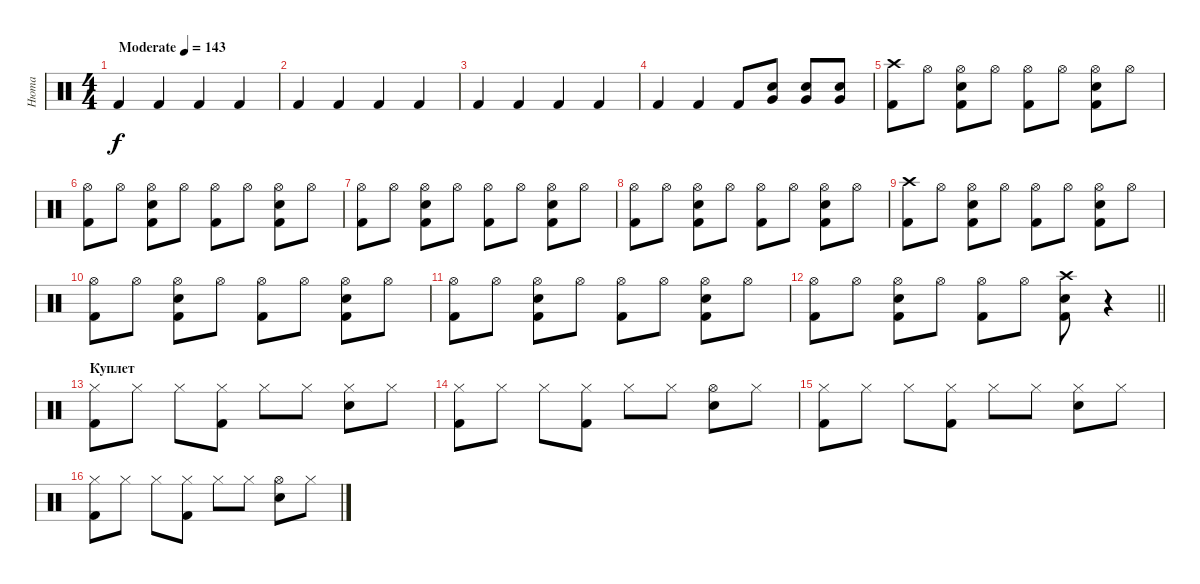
\track ("Нюта" "Нюта") {instrument percussion}
\staff {score}
\articulation defaults
\ts (4 4)
\tempo (143 "Moderate")
\clef neutral
\ks c "Kick (hit) 2".4{dy f} "Kick (hit) 2".4 "Kick (hit) 2".4 "Kick (hit) 2".4
|
"Kick (hit) 2".4 "Kick (hit) 2".4 "Kick (hit) 2".4 "Kick (hit) 2".4 |
"Kick (hit) 2".4 "Kick (hit) 2".4 "Kick (hit) 2".4 "Kick (hit) 2".4 |
"Kick (hit) 2".4 "Kick (hit) 2".4 "Kick (hit) 2".8 ("Very Low Tom (hit)" "Snare (hit) 2").8 ("Very Low Tom (hit)" "Snare (hit) 2").8 ("Very Low Tom (hit)" "Snare (hit) 2").8 |
("Crash high (hit)" "Kick (hit) 2").8 "Hi-Hat (open)".8 ("Hi-Hat (open)" "Snare (hit) 2" "Kick (hit) 2").8 "Hi-Hat (open)".8 ("Hi-Hat (open)" "Kick (hit) 2").8 "Hi-Hat (open)".8 ("Hi-Hat (open)" "Snare (hit) 2" "Kick (hit) 2").8 "Hi-Hat (open)".8 |
("Hi-Hat (open)" "Kick (hit) 2").8 "Hi-Hat (open)".8 ("Hi-Hat (open)" "Snare (hit) 2" "Kick (hit) 2").8 "Hi-Hat (open)".8 ("Hi-Hat (open)" "Kick (hit) 2").8 "Hi-Hat (open)".8 ("Hi-Hat (open)" "Snare (hit) 2" "Kick (hit) 2").8 "Hi-Hat (open)".8 |
("Hi-Hat (open)" "Kick (hit) 2").8 "Hi-Hat (open)".8 ("Hi-Hat (open)" "Snare (hit) 2" "Kick (hit) 2").8 "Hi-Hat (open)".8 ("Hi-Hat (open)" "Kick (hit) 2").8 "Hi-Hat (open)".8 ("Hi-Hat (open)" "Snare (hit) 2" "Kick (hit) 2").8 "Hi-Hat (open)".8 |
("Hi-Hat (open)" "Kick (hit) 2").8 "Hi-Hat (open)".8 ("Hi-Hat (open)" "Snare (hit) 2" "Kick (hit) 2").8 "Hi-Hat (open)".8 ("Hi-Hat (open)" "Kick (hit) 2").8 "Hi-Hat (open)".8 ("Hi-Hat (open)" "Snare (hit) 2" "Kick (hit) 2").8 "Hi-Hat (open)".8 |
("Crash high (hit)" "Kick (hit) 2").8 "Hi-Hat (open)".8 ("Hi-Hat (open)" "Snare (hit) 2" "Kick (hit) 2").8 "Hi-Hat (open)".8 ("Hi-Hat (open)" "Kick (hit) 2").8 "Hi-Hat (open)".8 ("Hi-Hat (open)" "Snare (hit) 2" "Kick (hit) 2").8 "Hi-Hat (open)".8 |
("Hi-Hat (open)" "Kick (hit) 2").8 "Hi-Hat (open)".8 ("Hi-Hat (open)" "Snare (hit) 2" "Kick (hit) 2").8 "Hi-Hat (open)".8 ("Hi-Hat (open)" "Kick (hit) 2").8 "Hi-Hat (open)".8 ("Hi-Hat (open)" "Snare (hit) 2" "Kick (hit) 2").8 "Hi-Hat (open)".8 |
("Hi-Hat (open)" "Kick (hit) 2").8 "Hi-Hat (open)".8 ("Hi-Hat (open)" "Snare (hit) 2" "Kick (hit) 2").8 "Hi-Hat (open)".8 ("Hi-Hat (open)" "Kick (hit) 2").8 "Hi-Hat (open)".8 ("Hi-Hat (open)" "Snare (hit) 2" "Kick (hit) 2").8 "Hi-Hat (open)".8 |
\barLineRight lightlight
("Hi-Hat (open)" "Kick (hit) 2").8 "Hi-Hat (open)".8 ("Hi-Hat (open)" "Snare (hit) 2" "Kick (hit) 2").8 "Hi-Hat (open)".8 ("Hi-Hat (open)" "Kick (hit) 2").8 "Hi-Hat (open)".8 ("Crash high (hit)" "Snare (hit) 2" "Kick (hit) 2").8 r.4 |
\section ("" "Куплет")
("Hi-Hat (closed)" "Kick (hit) 2").8 "Hi-Hat (closed)".8 "Hi-Hat (closed)".8 ("Hi-Hat (closed)" "Kick (hit) 2").8 "Hi-Hat (closed)".8 "Hi-Hat (closed)".8 ("Hi-Hat (closed)" "Snare (hit) 2").8 "Hi-Hat (closed)".8 |
("Hi-Hat (closed)" "Kick (hit) 2").8 "Hi-Hat (closed)".8 "Hi-Hat (closed)".8 ("Hi-Hat (closed)" "Kick (hit) 2").8 "Hi-Hat (closed)".8 "Hi-Hat (closed)".8 ("Hi-Hat (open)" "Snare (hit) 2").8 "Hi-Hat (closed)".8 |
("Hi-Hat (closed)" "Kick (hit) 2").8 "Hi-Hat (closed)".8 "Hi-Hat (closed)".8 ("Hi-Hat (closed)" "Kick (hit) 2").8 "Hi-Hat (closed)".8 "Hi-Hat (closed)".8 ("Hi-Hat (closed)" "Snare (hit) 2").8 "Hi-Hat (closed)".8 |
("Hi-Hat (closed)" "Kick (hit) 2").8 "Hi-Hat (closed)".8 "Hi-Hat (closed)".8 ("Hi-Hat (closed)" "Kick (hit) 2").8 "Hi-Hat (closed)".8 "Hi-Hat (closed)".8 ("Hi-Hat (open)" "Snare (hit) 2").8 "Hi-Hat (closed)".8
